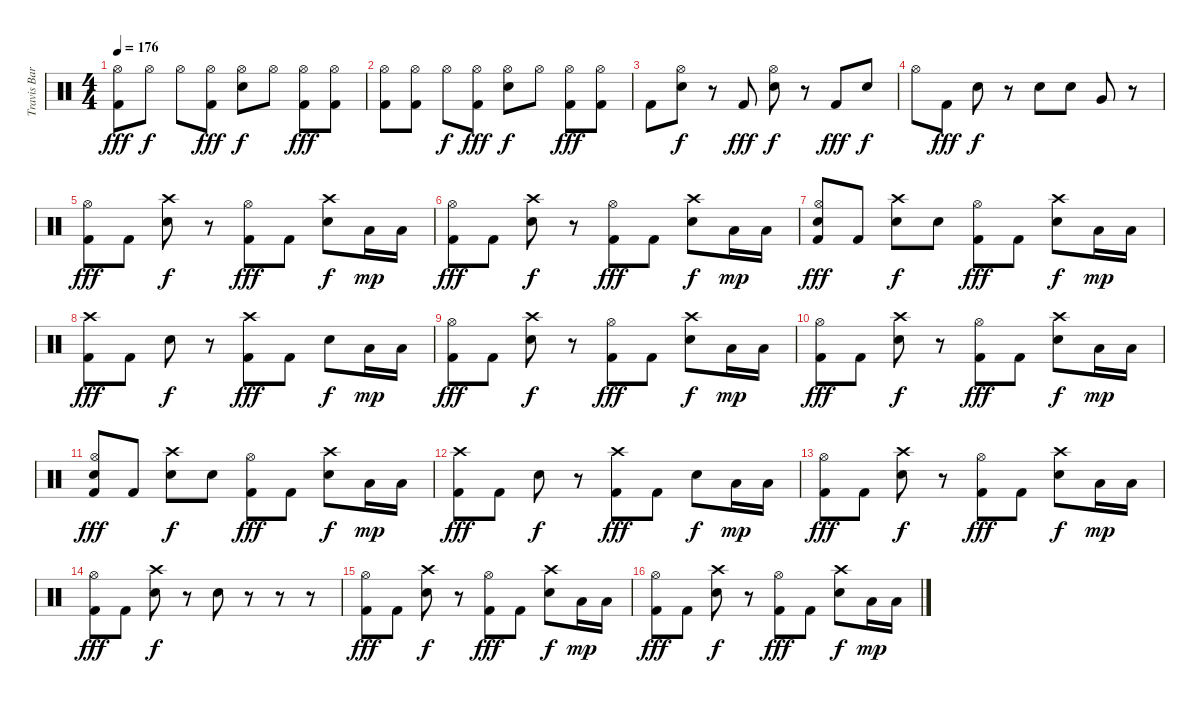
\track ("Travis Barker - Drums" "Travis Bar") {instrument percussion}
\staff {score}
\articulation defaults
\ts (4 4)
\tempo 176
\clef neutral
\ks c
("Kick (hit) 2" "Hi-Hat (open)").8{dy fff} "Hi-Hat (open)".8{dy f} "Hi-Hat (open)".8 ("Kick (hit) 2" "Hi-Hat (open)").8{dy fff} ("Snare (hit) 2" "Hi-Hat (open)").8{dy f} "Hi-Hat (open)".8 ("Kick (hit) 2" "Hi-Hat (open)").8{dy fff} ("Kick (hit) 2" "Hi-Hat (open)").8 |
("Kick (hit) 2" "Hi-Hat (open)").8 ("Kick (hit) 2" "Hi-Hat (open)").8 "Hi-Hat (open)".8{dy f} ("Kick (hit) 2" "Hi-Hat (open)").8{dy fff} ("Snare (hit) 2" "Hi-Hat (open)").8{dy f} "Hi-Hat (open)".8 ("Kick (hit) 2" "Hi-Hat (open)").8{dy fff} ("Kick (hit) 2" "Hi-Hat (open)").8 |
"Kick (hit) 2".8 ("Snare (hit) 2" "Hi-Hat (open)").8{dy f} r.8 "Kick (hit) 2".8{dy fff} ("Snare (hit) 2" "Hi-Hat (open)").8{dy f} r.8 "Kick (hit) 2".8{dy fff} "Snare (hit) 2".8{dy f} |
"Hi-Hat (open)".8 "Kick (hit) 2".8{dy fff} "Snare (hit) 2".8{dy f} r.8 "Snare (hit) 2".8 "Snare (hit) 2".8 "Very Low Tom (hit)".8 r.8 |
("Kick (hit) 2" "Hi-Hat (open)").8{dy fff} "Kick (hit) 2".8 ("Snare (hit) 2" "Crash high (hit)").8{dy f} r.8 ("Kick (hit) 2" "Hi-Hat (open)").8{dy fff} "Kick (hit) 2".8 ("Snare (hit) 2" "Crash high (hit)").8{dy f} "Low Tom (hit)".16{dy mp} "Low Tom (hit)".16 |
("Kick (hit) 2" "Hi-Hat (open)").8{dy fff} "Kick (hit) 2".8 ("Snare (hit) 2" "Crash high (hit)").8{dy f} r.8 ("Kick (hit) 2" "Hi-Hat (open)").8{dy fff} "Kick (hit) 2".8 ("Snare (hit) 2" "Crash high (hit)").8{dy f} "Low Tom (hit)".16{dy mp} "Low Tom (hit)".16 |
("Kick (hit) 2" "Snare (hit) 2" "Hi-Hat (open)").8{dy fff} "Kick (hit) 2".8 ("Snare (hit) 2" "Crash high (hit)").8{dy f} "Snare (hit) 2".8 ("Kick (hit) 2" "Hi-Hat (open)").8{dy fff} "Kick (hit) 2".8 ("Snare (hit) 2" "Crash high (hit)").8{dy f} "Low Tom (hit)".16{dy mp} "Low Tom (hit)".16 |
("Kick (hit) 2" "Crash high (hit)").8{dy fff} "Kick (hit) 2".8 "Snare (hit) 2".8{dy f} r.8 ("Kick (hit) 2" "Crash high (hit)").8{dy fff} "Kick (hit) 2".8 "Snare (hit) 2".8{dy f} "Low Tom (hit)".16{dy mp} "Low Tom (hit)".16 |
("Kick (hit) 2" "Hi-Hat (open)").8{dy fff} "Kick (hit) 2".8 ("Snare (hit) 2" "Crash high (hit)").8{dy f} r.8 ("Kick (hit) 2" "Hi-Hat (open)").8{dy fff} "Kick (hit) 2".8 ("Snare (hit) 2" "Crash high (hit)").8{dy f} "Low Tom (hit)".16{dy mp} "Low Tom (hit)".16 |
("Kick (hit) 2" "Hi-Hat (open)").8{dy fff} "Kick (hit) 2".8 ("Snare (hit) 2" "Crash high (hit)").8{dy f} r.8 ("Kick (hit) 2" "Hi-Hat (open)").8{dy fff} "Kick (hit) 2".8 ("Snare (hit) 2" "Crash high (hit)").8{dy f} "Low Tom (hit)".16{dy mp} "Low Tom (hit)".16 |
("Kick (hit) 2" "Snare (hit) 2" "Hi-Hat (open)").8{dy fff} "Kick (hit) 2".8 ("Snare (hit) 2" "Crash high (hit)").8{dy f} "Snare (hit) 2".8 ("Kick (hit) 2" "Hi-Hat (open)").8{dy fff} "Kick (hit) 2".8 ("Snare (hit) 2" "Crash high (hit)").8{dy f} "Low Tom (hit)".16{dy mp} "Low Tom (hit)".16 |
("Kick (hit) 2" "Crash high (hit)").8{dy fff} "Kick (hit) 2".8 "Snare (hit) 2".8{dy f} r.8 ("Kick (hit) 2" "Crash high (hit)").8{dy fff} "Kick (hit) 2".8 "Snare (hit) 2".8{dy f} "Low Tom (hit)".16{dy mp} "Low Tom (hit)".16 |
("Kick (hit) 2" "Hi-Hat (open)").8{dy fff} "Kick (hit) 2".8 ("Snare (hit) 2" "Crash high (hit)").8{dy f} r.8 ("Kick (hit) 2" "Hi-Hat (open)").8{dy fff} "Kick (hit) 2".8 ("Snare (hit) 2" "Crash high (hit)").8{dy f} "Low Tom (hit)".16{dy mp} "Low Tom (hit)".16 |
("Kick (hit) 2" "Hi-Hat (open)").8{dy fff} "Kick (hit) 2".8 ("Snare (hit) 2" "Crash high (hit)").8{dy f} r.8 "Snare (hit) 2".8 r.8 r.8 r.8 |
("Kick (hit) 2" "Hi-Hat (open)").8{dy fff} "Kick (hit) 2".8 ("Snare (hit) 2" "Crash high (hit)").8{dy f} r.8 ("Kick (hit) 2" "Hi-Hat (open)").8{dy fff} "Kick (hit) 2".8 ("Snare (hit) 2" "Crash high (hit)").8{dy f} "Low Tom (hit)".16{dy mp} "Low Tom (hit)".16 |
("Kick (hit) 2" "Hi-Hat (open)").8{dy fff} "Kick (hit) 2".8 ("Snare (hit) 2" "Crash high (hit)").8{dy f} r.8 ("Kick (hit) 2" "Hi-Hat (open)").8{dy fff} "Kick (hit) 2".8 ("Snare (hit) 2" "Crash high (hit)").8{dy f} "Low Tom (hit)".16{dy mp} "Low Tom (hit)".16
